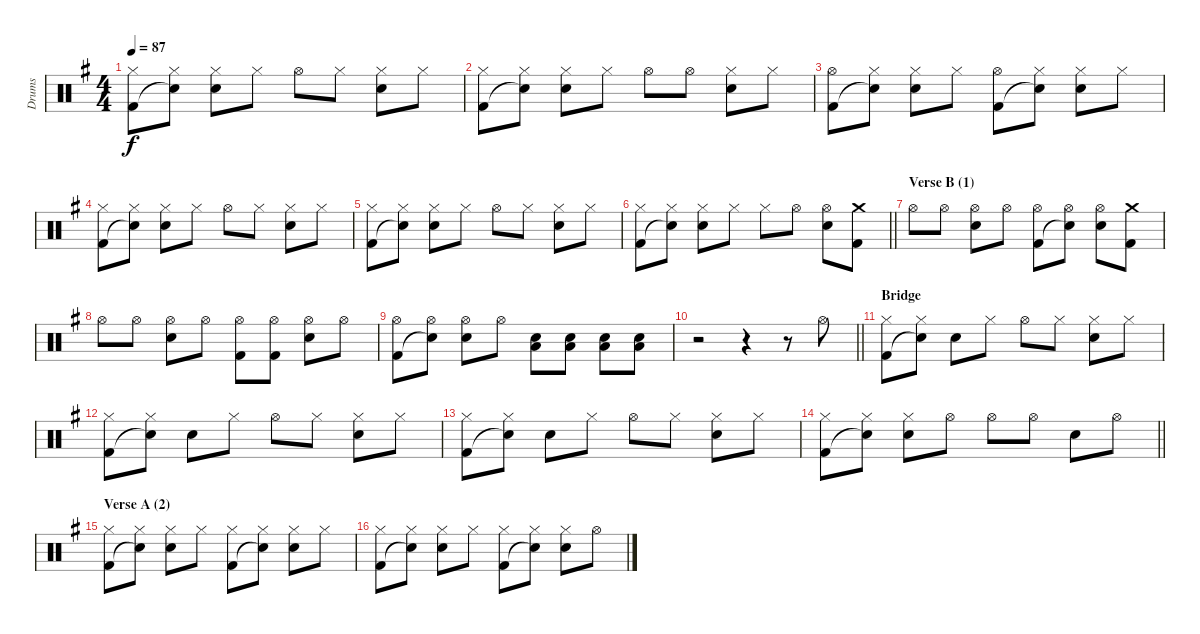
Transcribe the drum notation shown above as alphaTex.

\track ("Drums" "Drums") {instrument percussion}
\staff {score}
\articulation defaults
\ts (4 4)
\tempo 87
\clef neutral
\ks g
("Hi-Hat (closed)" "Kick (hit) 2").8{dy f} ("Hi-Hat (closed)" "Snare (hit)"{t}).8 ("Hi-Hat (closed)" "Electric Snare (hit)").8 "Hi-Hat (closed)".8 "Hi-Hat (open)".8 "Hi-Hat (closed)".8 ("Hi-Hat (closed)" "Electric Snare (hit)").8 "Hi-Hat (closed)".8 |
("Hi-Hat (closed)" "Kick (hit) 2").8 ("Hi-Hat (closed)" "Snare (hit)"{t}).8 ("Hi-Hat (closed)" "Electric Snare (hit)").8 "Hi-Hat (closed)".8 "Hi-Hat (open)".8 "Hi-Hat (open)".8 ("Hi-Hat (closed)" "Electric Snare (hit)").8 "Hi-Hat (closed)".8 |
("Hi-Hat (open)" "Kick (hit) 2").8 ("Hi-Hat (closed)" "Snare (hit)"{t}).8 ("Hi-Hat (closed)" "Electric Snare (hit)").8 "Hi-Hat (closed)".8 ("Hi-Hat (open)" "Kick (hit) 2").8 ("Hi-Hat (closed)" "Snare (hit)"{t}).8 ("Hi-Hat (closed)" "Electric Snare (hit)").8 "Hi-Hat (closed)".8 |
("Hi-Hat (closed)" "Kick (hit) 2").8 ("Hi-Hat (closed)" "Snare (hit)"{t}).8 ("Hi-Hat (closed)" "Electric Snare (hit)").8 "Hi-Hat (closed)".8 "Hi-Hat (open)".8 "Hi-Hat (closed)".8 ("Hi-Hat (closed)" "Electric Snare (hit)").8 "Hi-Hat (closed)".8 |
("Hi-Hat (closed)" "Kick (hit) 2").8 ("Hi-Hat (closed)" "Snare (hit)"{t}).8 ("Hi-Hat (closed)" "Electric Snare (hit)").8 "Hi-Hat (closed)".8 "Hi-Hat (open)".8 "Hi-Hat (closed)".8 ("Hi-Hat (closed)" "Electric Snare (hit)").8 "Hi-Hat (closed)".8 |
\barLineRight lightlight
("Hi-Hat (closed)" "Kick (hit) 2").8 ("Hi-Hat (closed)" "Snare (hit)"{t}).8 ("Hi-Hat (closed)" "Electric Snare (hit)").8 "Hi-Hat (closed)".8 "Hi-Hat (closed)".8 "Hi-Hat (open)".8 ("Hi-Hat (open)" "Electric Snare (hit)").8 ("Crash medium (hit)" "Kick (hit) 2").8 |
\section ("" "Verse B (1)")
"Hi-Hat (open)".8 "Hi-Hat (open)".8 ("Hi-Hat (open)" "Electric Snare (hit)").8 "Hi-Hat (open)".8 ("Hi-Hat (open)" "Kick (hit) 2").8 ("Hi-Hat (open)" "Snare (hit)"{t}).8 ("Hi-Hat (open)" "Electric Snare (hit)").8 ("Crash medium (hit)" "Kick (hit) 2").8 |
"Hi-Hat (open)".8 "Hi-Hat (open)".8 ("Hi-Hat (open)" "Electric Snare (hit)").8 "Hi-Hat (open)".8 ("Hi-Hat (open)" "Kick (hit) 2").8 ("Hi-Hat (open)" "Kick (hit) 2").8 ("Hi-Hat (open)" "Electric Snare (hit)").8 "Hi-Hat (open)".8 |
("Hi-Hat (open)" "Kick (hit) 2").8 ("Hi-Hat (open)" "Snare (hit)"{t}).8 ("Hi-Hat (open)" "Electric Snare (hit)").8 "Hi-Hat (open)".8 ("Electric Snare (hit)" "Low Tom (hit)").8 ("Electric Snare (hit)" "Low Tom (hit)").8 ("Electric Snare (hit)" "Low Tom (hit)").8 ("Electric Snare (hit)" "Low Tom (hit)").8 |
\barLineRight lightlight
r.2 r.4 r.8 "Hi-Hat (open)".8 |
\section ("" "Bridge")
("Hi-Hat (closed)" "Kick (hit) 2").8 ("Hi-Hat (closed)" "Snare (hit)"{t}).8 "Electric Snare (hit)".8 "Hi-Hat (closed)".8 "Hi-Hat (open)".8 "Hi-Hat (closed)".8 ("Hi-Hat (closed)" "Electric Snare (hit)").8 "Hi-Hat (closed)".8 |
("Hi-Hat (closed)" "Kick (hit) 2").8 ("Hi-Hat (closed)" "Snare (hit)"{t}).8 "Electric Snare (hit)".8 "Hi-Hat (closed)".8 "Hi-Hat (open)".8 "Hi-Hat (closed)".8 ("Hi-Hat (closed)" "Electric Snare (hit)").8 "Hi-Hat (closed)".8 |
("Hi-Hat (closed)" "Kick (hit) 2").8 ("Hi-Hat (closed)" "Snare (hit)"{t}).8 "Electric Snare (hit)".8 "Hi-Hat (closed)".8 "Hi-Hat (open)".8 "Hi-Hat (closed)".8 ("Hi-Hat (closed)" "Electric Snare (hit)").8 "Hi-Hat (closed)".8 |
\barLineRight lightlight
("Hi-Hat (closed)" "Kick (hit) 2").8 ("Hi-Hat (closed)" "Snare (hit)"{t}).8 ("Hi-Hat (closed)" "Electric Snare (hit)").8 "Hi-Hat (open)".8 "Hi-Hat (open)".8 "Hi-Hat (open)".8 "Electric Snare (hit)".8 "Hi-Hat (open)".8 |
\section ("" "Verse A (2)")
("Hi-Hat (closed)" "Kick (hit) 2").8 ("Hi-Hat (closed)" "Snare (hit)"{t}).8 ("Hi-Hat (closed)" "Electric Snare (hit)").8 "Hi-Hat (closed)".8 ("Hi-Hat (closed)" "Kick (hit) 2").8 ("Hi-Hat (closed)" "Snare (hit)"{t}).8 ("Hi-Hat (closed)" "Electric Snare (hit)").8 "Hi-Hat (closed)".8 |
("Hi-Hat (closed)" "Kick (hit) 2").8 ("Hi-Hat (closed)" "Snare (hit)"{t}).8 ("Hi-Hat (closed)" "Electric Snare (hit)").8 "Hi-Hat (closed)".8 ("Hi-Hat (closed)" "Kick (hit) 2").8 ("Hi-Hat (closed)" "Snare (hit)"{t}).8 ("Hi-Hat (closed)" "Electric Snare (hit)").8 "Hi-Hat (open)".8
